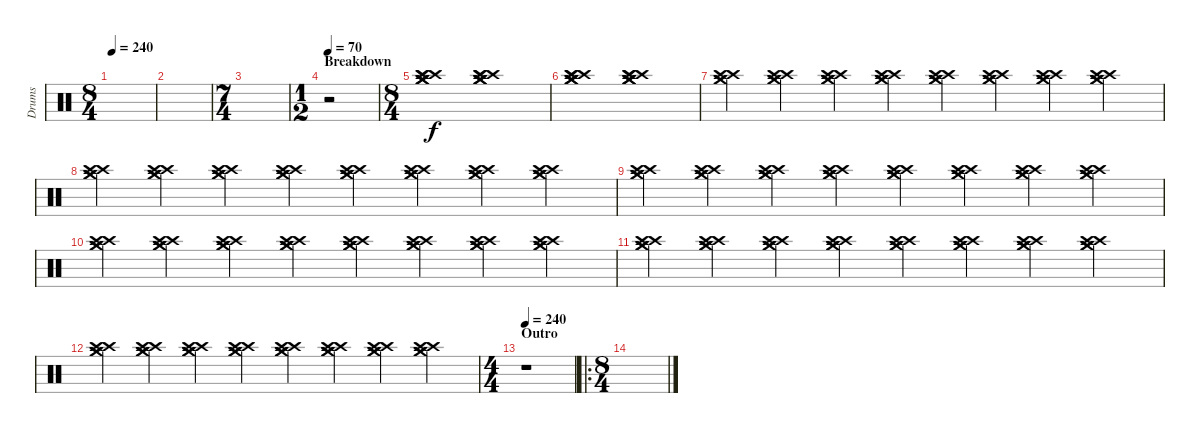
\track ("Drums" "Drums") {instrument percussion}
\staff {score}
\articulation defaults
\ts (8 4)
\tempo 240
\clef neutral
\ks c
|
|
\ts (7 4)
|
\ts (1 2)
\section ("" "Breakdown")
\tempo 70
r.2 |
\ts (8 4)
("Crash high (hit)" "Crash high (hit)" "Crash high (hit)" "Crash medium (hit)" "Crash medium (hit)" "Crash medium (hit)").1 ("Crash high (hit)" "Crash high (hit)" "Crash high (hit)" "Crash medium (hit)" "Crash medium (hit)" "Crash medium (hit)").1 |
("Crash high (hit)" "Crash high (hit)" "Crash high (hit)" "Crash medium (hit)" "Crash medium (hit)" "Crash medium (hit)").1 ("Crash high (hit)" "Crash high (hit)" "Crash high (hit)" "Crash medium (hit)" "Crash medium (hit)" "Crash medium (hit)").1 |
("Crash high (hit)" "Crash high (hit)" "Crash medium (hit)" "Crash medium (hit)").4 ("Crash high (hit)" "Crash high (hit)" "Crash medium (hit)" "Crash medium (hit)").4 ("Crash high (hit)" "Crash high (hit)" "Crash medium (hit)" "Crash medium (hit)").4 ("Crash high (hit)" "Crash high (hit)" "Crash medium (hit)" "Crash medium (hit)").4 ("Crash high (hit)" "Crash high (hit)" "Crash medium (hit)" "Crash medium (hit)").4 ("Crash high (hit)" "Crash high (hit)" "Crash medium (hit)" "Crash medium (hit)").4 ("Crash high (hit)" "Crash high (hit)" "Crash medium (hit)" "Crash medium (hit)").4 ("Crash high (hit)" "Crash high (hit)" "Crash medium (hit)" "Crash medium (hit)").4 |
("Crash high (hit)" "Crash high (hit)" "Crash medium (hit)" "Crash medium (hit)").4 ("Crash high (hit)" "Crash high (hit)" "Crash medium (hit)" "Crash medium (hit)").4 ("Crash high (hit)" "Crash high (hit)" "Crash medium (hit)" "Crash medium (hit)").4 ("Crash high (hit)" "Crash high (hit)" "Crash medium (hit)" "Crash medium (hit)").4 ("Crash high (hit)" "Crash high (hit)" "Crash medium (hit)" "Crash medium (hit)").4 ("Crash high (hit)" "Crash high (hit)" "Crash medium (hit)" "Crash medium (hit)").4 ("Crash high (hit)" "Crash high (hit)" "Crash medium (hit)" "Crash medium (hit)").4 ("Crash high (hit)" "Crash high (hit)" "Crash medium (hit)" "Crash medium (hit)").4 |
("Crash high (hit)" "Crash high (hit)" "Crash medium (hit)" "Crash medium (hit)").4 ("Crash high (hit)" "Crash high (hit)" "Crash medium (hit)" "Crash medium (hit)").4 ("Crash high (hit)" "Crash high (hit)" "Crash medium (hit)" "Crash medium (hit)").4 ("Crash high (hit)" "Crash high (hit)" "Crash medium (hit)" "Crash medium (hit)").4 ("Crash high (hit)" "Crash high (hit)" "Crash medium (hit)" "Crash medium (hit)").4 ("Crash high (hit)" "Crash high (hit)" "Crash medium (hit)" "Crash medium (hit)").4 ("Crash high (hit)" "Crash high (hit)" "Crash medium (hit)" "Crash medium (hit)").4 ("Crash high (hit)" "Crash high (hit)" "Crash medium (hit)" "Crash medium (hit)").4 |
("Crash high (hit)" "Crash high (hit)" "Crash medium (hit)" "Crash medium (hit)").4 ("Crash high (hit)" "Crash high (hit)" "Crash medium (hit)" "Crash medium (hit)").4 ("Crash high (hit)" "Crash high (hit)" "Crash medium (hit)" "Crash medium (hit)").4 ("Crash high (hit)" "Crash high (hit)" "Crash medium (hit)" "Crash medium (hit)").4 ("Crash high (hit)" "Crash high (hit)" "Crash medium (hit)" "Crash medium (hit)").4 ("Crash high (hit)" "Crash high (hit)" "Crash medium (hit)" "Crash medium (hit)").4 ("Crash high (hit)" "Crash high (hit)" "Crash medium (hit)" "Crash medium (hit)").4 ("Crash high (hit)" "Crash high (hit)" "Crash medium (hit)" "Crash medium (hit)").4 |
("Crash high (hit)" "Crash high (hit)" "Crash medium (hit)" "Crash medium (hit)").4 ("Crash high (hit)" "Crash high (hit)" "Crash medium (hit)" "Crash medium (hit)").4 ("Crash high (hit)" "Crash high (hit)" "Crash medium (hit)" "Crash medium (hit)").4 ("Crash high (hit)" "Crash high (hit)" "Crash medium (hit)" "Crash medium (hit)").4 ("Crash high (hit)" "Crash high (hit)" "Crash medium (hit)" "Crash medium (hit)").4 ("Crash high (hit)" "Crash high (hit)" "Crash medium (hit)" "Crash medium (hit)").4 ("Crash high (hit)" "Crash high (hit)" "Crash medium (hit)" "Crash medium (hit)").4 ("Crash high (hit)" "Crash high (hit)" "Crash medium (hit)" "Crash medium (hit)").4 |
("Crash high (hit)" "Crash high (hit)" "Crash medium (hit)" "Crash medium (hit)").4 ("Crash high (hit)" "Crash high (hit)" "Crash medium (hit)" "Crash medium (hit)").4 ("Crash high (hit)" "Crash high (hit)" "Crash medium (hit)" "Crash medium (hit)").4 ("Crash high (hit)" "Crash high (hit)" "Crash medium (hit)" "Crash medium (hit)").4 ("Crash high (hit)" "Crash high (hit)" "Crash medium (hit)" "Crash medium (hit)").4 ("Crash high (hit)" "Crash high (hit)" "Crash medium (hit)" "Crash medium (hit)").4 ("Crash high (hit)" "Crash high (hit)" "Crash medium (hit)" "Crash medium (hit)").4 ("Crash high (hit)" "Crash high (hit)" "Crash medium (hit)" "Crash medium (hit)").4 |
\ts (4 4)
\section ("" "Outro")
\tempo 240
r.1 |
\ro
\ts (8 4)
